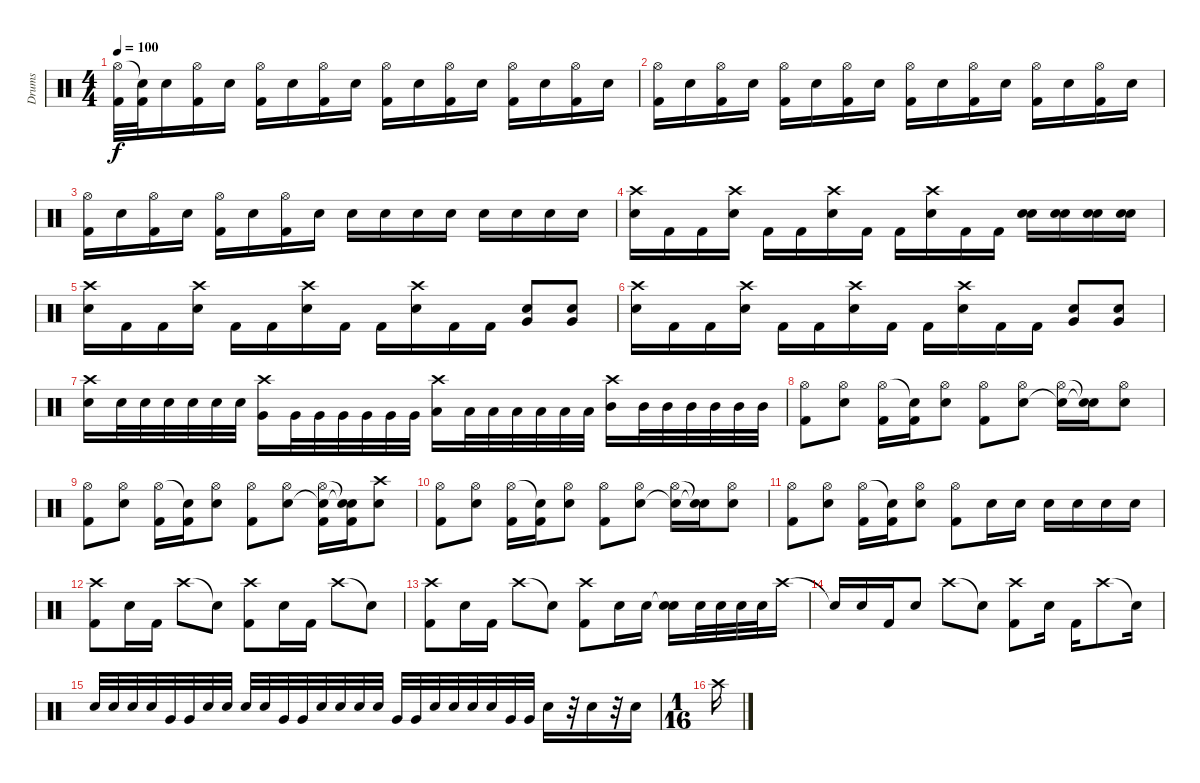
\track ("Drums" "Drums") {instrument percussion}
\staff {score}
\articulation defaults
\ts (4 4)
\tempo 100
\clef neutral
\ks c
("Hi-Hat (open)" "Kick (hit) 2").32{dy f} ("Snare (hit)"{t} "Kick (hit) 2").32 "Electric Snare (hit)".16 ("Hi-Hat (open)" "Kick (hit) 2").16 "Electric Snare (hit)".16 ("Hi-Hat (open)" "Kick (hit) 2").16 "Electric Snare (hit)".16 ("Hi-Hat (open)" "Kick (hit) 2").16 "Electric Snare (hit)".16 ("Hi-Hat (open)" "Kick (hit) 2").16 "Electric Snare (hit)".16 ("Hi-Hat (open)" "Kick (hit) 2").16 "Electric Snare (hit)".16 ("Hi-Hat (open)" "Kick (hit) 2").16 "Electric Snare (hit)".16 ("Hi-Hat (open)" "Kick (hit) 2").16 "Electric Snare (hit)".16 |
("Hi-Hat (open)" "Kick (hit) 2").16 "Electric Snare (hit)".16 ("Hi-Hat (open)" "Kick (hit) 2").16 "Electric Snare (hit)".16 ("Hi-Hat (open)" "Kick (hit) 2").16 "Electric Snare (hit)".16 ("Hi-Hat (open)" "Kick (hit) 2").16 "Electric Snare (hit)".16 ("Hi-Hat (open)" "Kick (hit) 2").16 "Electric Snare (hit)".16 ("Hi-Hat (open)" "Kick (hit) 2").16 "Electric Snare (hit)".16 ("Hi-Hat (open)" "Kick (hit) 2").16 "Electric Snare (hit)".16 ("Hi-Hat (open)" "Kick (hit) 2").16 "Electric Snare (hit)".16 |
("Hi-Hat (open)" "Kick (hit) 2").16 "Electric Snare (hit)".16 ("Hi-Hat (open)" "Kick (hit) 2").16 "Electric Snare (hit)".16 ("Hi-Hat (open)" "Kick (hit) 2").16 "Electric Snare (hit)".16 ("Hi-Hat (open)" "Kick (hit) 2").16 "Electric Snare (hit)".16 "Electric Snare (hit)".16 "Electric Snare (hit)".16 "Electric Snare (hit)".16 "Electric Snare (hit)".16 "Electric Snare (hit)".16 "Electric Snare (hit)".16 "Electric Snare (hit)".16 "Electric Snare (hit)".16 |
("Crash high (hit)" "Electric Snare (hit)").16 "Kick (hit) 2".16 "Kick (hit) 2".16 ("Crash high (hit)" "Electric Snare (hit)").16 "Kick (hit) 2".16 "Kick (hit) 2".16 ("Crash high (hit)" "Electric Snare (hit)").16 "Kick (hit) 2".16 "Kick (hit) 2".16 ("Crash high (hit)" "Electric Snare (hit)").16 "Kick (hit) 2".16 "Kick (hit) 2".16 ("Electric Snare (hit)" "Electric Snare (hit)").16 ("Electric Snare (hit)" "Electric Snare (hit)").16 ("Electric Snare (hit)" "Electric Snare (hit)").16 ("Electric Snare (hit)" "Electric Snare (hit)").16 |
("Crash high (hit)" "Electric Snare (hit)").16 "Kick (hit) 2".16 "Kick (hit) 2".16 ("Crash high (hit)" "Electric Snare (hit)").16 "Kick (hit) 2".16 "Kick (hit) 2".16 ("Crash high (hit)" "Electric Snare (hit)").16 "Kick (hit) 2".16 "Kick (hit) 2".16 ("Crash high (hit)" "Electric Snare (hit)").16 "Kick (hit) 2".16 "Kick (hit) 2".16 ("Very Low Tom (hit)" "Electric Snare (hit)").8 ("Very Low Tom (hit)" "Electric Snare (hit)").8 |
("Crash high (hit)" "Electric Snare (hit)").16 "Kick (hit) 2".16 "Kick (hit) 2".16 ("Crash high (hit)" "Electric Snare (hit)").16 "Kick (hit) 2".16 "Kick (hit) 2".16 ("Crash high (hit)" "Electric Snare (hit)").16 "Kick (hit) 2".16 "Kick (hit) 2".16 ("Crash high (hit)" "Electric Snare (hit)").16 "Kick (hit) 2".16 "Kick (hit) 2".16 ("Very Low Tom (hit)" "Electric Snare (hit)").8 ("Very Low Tom (hit)" "Electric Snare (hit)").8 |
("Crash high (hit)" "Electric Snare (hit)").16 "Electric Snare (hit)".32 "Electric Snare (hit)".32 "Electric Snare (hit)".32 "Electric Snare (hit)".32 "Electric Snare (hit)".32 "Electric Snare (hit)".32 ("Crash high (hit)" "Very Low Tom (hit)").16 "Very Low Tom (hit)".32 "Very Low Tom (hit)".32 "Very Low Tom (hit)".32 "Very Low Tom (hit)".32 "Very Low Tom (hit)".32 "Very Low Tom (hit)".32 ("Crash high (hit)" "Low Tom (hit)").16 "Low Tom (hit)".32 "Low Tom (hit)".32 "Low Tom (hit)".32 "Low Tom (hit)".32 "Low Tom (hit)".32 "Low Tom (hit)".32 ("Crash high (hit)" "Mid Tom (hit)").16 "Mid Tom (hit)".32 "Mid Tom (hit)".32 "Mid Tom (hit)".32 "Mid Tom (hit)".32 "Mid Tom (hit)".32 "Mid Tom (hit)".32 |
("Hi-Hat (open)" "Kick (hit) 2").8 ("Hi-Hat (open)" "Electric Snare (hit)").8 ("Hi-Hat (open)" "Kick (hit) 2").16 ("Snare (hit)"{t} "Kick (hit) 2").16 ("Hi-Hat (open)" "Electric Snare (hit)").8 ("Hi-Hat (open)" "Kick (hit) 2").8 ("Hi-Hat (open)" "Electric Snare (hit)").8 ("Hi-Hat (open)" "Snare (hit)"{t}).16 ("Snare (hit)"{t} "Snare (hit)"{t}).16 ("Hi-Hat (open)" "Electric Snare (hit)").8 |
("Hi-Hat (open)" "Kick (hit) 2").8 ("Hi-Hat (open)" "Electric Snare (hit)").8 ("Hi-Hat (open)" "Kick (hit) 2").16 ("Snare (hit)"{t} "Kick (hit) 2").16 ("Hi-Hat (open)" "Electric Snare (hit)").8 ("Hi-Hat (open)" "Kick (hit) 2").8 ("Hi-Hat (open)" "Electric Snare (hit)").8 ("Hi-Hat (open)" "Snare (hit)"{t} "Kick (hit) 2").16 ("Snare (hit)"{t} "Snare (hit)"{t} "Kick (hit) 2").16 ("Crash high (hit)" "Electric Snare (hit)").8 |
("Hi-Hat (open)" "Kick (hit) 2").8 ("Hi-Hat (open)" "Electric Snare (hit)").8 ("Hi-Hat (open)" "Kick (hit) 2").16 ("Snare (hit)"{t} "Kick (hit) 2").16 ("Hi-Hat (open)" "Electric Snare (hit)").8 ("Hi-Hat (open)" "Kick (hit) 2").8 ("Hi-Hat (open)" "Electric Snare (hit)").8 ("Hi-Hat (open)" "Snare (hit)"{t}).16 ("Snare (hit)"{t} "Snare (hit)"{t}).16 ("Hi-Hat (open)" "Electric Snare (hit)").8 |
("Hi-Hat (open)" "Kick (hit) 2").8 ("Hi-Hat (open)" "Electric Snare (hit)").8 ("Hi-Hat (open)" "Kick (hit) 2").16 ("Snare (hit)"{t} "Kick (hit) 2").16 ("Hi-Hat (open)" "Electric Snare (hit)").8 ("Hi-Hat (open)" "Kick (hit) 2").8 "Electric Snare (hit)".16 "Electric Snare (hit)".16 "Electric Snare (hit)".16 "Electric Snare (hit)".16 "Electric Snare (hit)".16 "Electric Snare (hit)".16 |
("Crash high (hit)" "Kick (hit) 2").8 "Electric Snare (hit)".16 "Kick (hit) 2".16 "Crash high (hit)".8 "Snare (hit)"{t}.8 ("Crash high (hit)" "Kick (hit) 2").8 "Electric Snare (hit)".16 "Kick (hit) 2".16 "Crash high (hit)".8 "Snare (hit)"{t}.8 |
("Crash high (hit)" "Kick (hit) 2").8 "Electric Snare (hit)".16 "Kick (hit) 2".16 "Crash high (hit)".8 "Snare (hit)"{t}.8 ("Crash high (hit)" "Kick (hit) 2").8 "Electric Snare (hit)".16 "Electric Snare (hit)".16 ("Snare (hit)"{t} "Electric Snare (hit)").16 "Electric Snare (hit)".32 "Electric Snare (hit)".32 "Electric Snare (hit)".32 "Electric Snare (hit)".32 "Crash high (hit)".16 |
"Snare (hit)"{t}.16 "Electric Snare (hit)".16 "Kick (hit) 2".16 "Electric Snare (hit)".8 "Crash high (hit)".8 "Snare (hit)"{t}.8 ("Crash high (hit)" "Kick (hit) 2").8 "Electric Snare (hit)".16 "Kick (hit) 2".16 "Crash high (hit)".8 "Snare (hit)"{t}.16 |
"Electric Snare (hit)".32 "Electric Snare (hit)".32 "Electric Snare (hit)".32 "Electric Snare (hit)".32 "Very Low Tom (hit)".32 "Very Low Tom (hit)".32 "Electric Snare (hit)".32 "Electric Snare (hit)".32 "Electric Snare (hit)".32 "Electric Snare (hit)".32 "Very Low Tom (hit)".32 "Very Low Tom (hit)".32 "Electric Snare (hit)".32 "Electric Snare (hit)".32 "Electric Snare (hit)".32 "Electric Snare (hit)".32 "Very Low Tom (hit)".32 "Very Low Tom (hit)".32 "Electric Snare (hit)".32 "Electric Snare (hit)".32 "Electric Snare (hit)".32 "Electric Snare (hit)".32 "Very Low Tom (hit)".32 "Very Low Tom (hit)".32 "Electric Snare (hit)".16 r.32 "Electric Snare (hit)".16 r.32 "Electric Snare (hit)".16 |
\ts (1 16)
"Crash high (hit)".16
